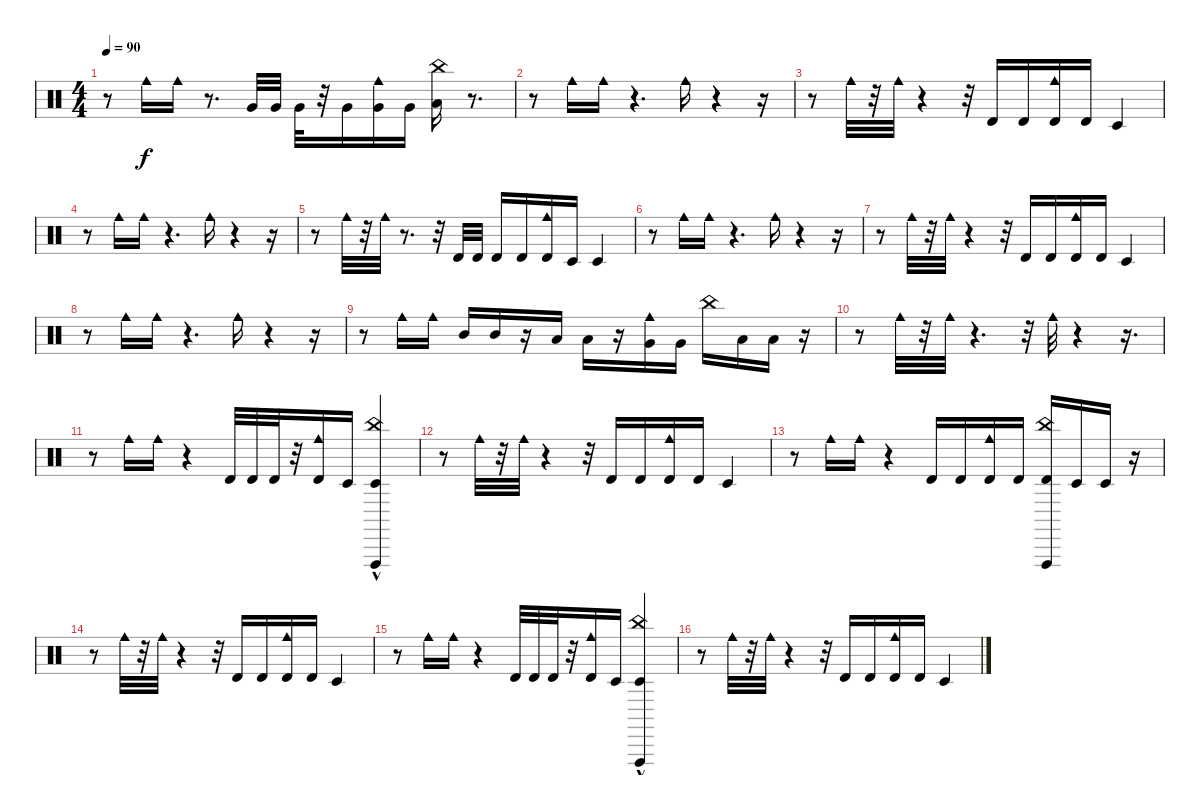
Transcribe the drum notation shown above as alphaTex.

\track "" {instrument percussion}
\staff {score}
\articulation defaults
\ts (4 4)
\tempo 90
\clef neutral
\ks c
r.8{dy f} "Cowbell medium (hit)".16 "Cowbell medium (hit)".16 r.8{d} "Very Low Tom (hit)".32 "Very Low Tom (hit)".32 "Very Low Tom (hit)".32 r.32 "Very Low Tom (hit)".16 ("Very Low Tom (hit)" "Cowbell medium (hit)").16 "Very Low Tom (hit)".16 ("Low Floor Tom (hit)" "China (hit)").16 r.8{d} |
r.8 "Cowbell medium (hit)".16 "Cowbell medium (hit)".16 r.4{d} "Cowbell medium (hit)".16 r.4 r.16 |
r.8 "Cowbell medium (hit)".32 r.32 "Cowbell medium (hit)".32 r.4 r.32 "Timbale high (hit)".16 "Timbale high (hit)".16 ("Cowbell medium (hit)" "Timbale high (hit)").16 "Timbale high (hit)".16 "Timbale low (hit)".4 |
r.8 "Cowbell medium (hit)".16 "Cowbell medium (hit)".16 r.4{d} "Cowbell medium (hit)".16 r.4 r.16 |
r.8 "Cowbell medium (hit)".32 r.32 "Cowbell medium (hit)".32 r.8{d} r.32 "Timbale high (hit)".32 "Timbale high (hit)".32 "Timbale high (hit)".16 "Timbale high (hit)".16 ("Cowbell medium (hit)" "Timbale high (hit)").16 "Timbale low (hit)".16 "Timbale low (hit)".4 |
r.8 "Cowbell medium (hit)".16 "Cowbell medium (hit)".16 r.4{d} "Cowbell medium (hit)".16 r.4 r.16 |
r.8 "Cowbell medium (hit)".32 r.32 "Cowbell medium (hit)".32 r.4 r.32 "Timbale high (hit)".16 "Timbale high (hit)".16 ("Cowbell medium (hit)" "Timbale high (hit)").16 "Timbale high (hit)".16 "Timbale low (hit)".4 |
r.8 "Cowbell medium (hit)".16 "Cowbell medium (hit)".16 r.4{d} "Cowbell medium (hit)".16 r.4 r.16 |
r.8 "Cowbell medium (hit)".16 "Cowbell medium (hit)".16 "Mid Tom (hit)".16 "Mid Tom (hit)".16 r.16 "Low Tom (hit)".16 "Low Tom (hit)".16 r.16 ("Very Low Tom (hit)" "Cowbell medium (hit)").16 "Very Low Tom (hit)".16 "China (hit)".16 "Low Floor Tom (hit)".16 "Low Floor Tom (hit)".16 r.16 |
r.8 "Cowbell medium (hit)".32 r.32 "Cowbell medium (hit)".32 r.4{d} r.32 "Cowbell medium (hit)".32 r.4 r.16{d} |
r.8 "Cowbell medium (hit)".16 "Cowbell medium (hit)".16 r.4 "Timbale high (hit)".32 "Timbale high (hit)".32 "Timbale high (hit)".32 r.32 ("Cowbell medium (hit)" "Timbale high (hit)").16 "Timbale low (hit)".16 ("Vibraslap (hit)"{hac} "China (hit)" "Timbale low (hit)").4 |
r.8 "Cowbell medium (hit)".32 r.32 "Cowbell medium (hit)".32 r.4 r.32 "Timbale high (hit)".16 "Timbale high (hit)".16 ("Timbale high (hit)" "Cowbell medium (hit)").16 "Timbale high (hit)".16 "Timbale low (hit)".4 |
r.8 "Cowbell medium (hit)".16 "Cowbell medium (hit)".16 r.4 "Timbale high (hit)".16 "Timbale high (hit)".16 ("Timbale high (hit)" "Cowbell medium (hit)").16 "Timbale high (hit)".16 ("China (hit)" "Vibraslap (hit)" "Timbale high (hit)").16 "Timbale low (hit)".16 "Timbale low (hit)".16 r.16 |
r.8 "Cowbell medium (hit)".32 r.32 "Cowbell medium (hit)".32 r.4 r.32 "Timbale high (hit)".16 "Timbale high (hit)".16 ("Timbale high (hit)" "Cowbell medium (hit)").16 "Timbale high (hit)".16 "Timbale low (hit)".4 |
r.8 "Cowbell medium (hit)".16 "Cowbell medium (hit)".16 r.4 "Timbale high (hit)".32 "Timbale high (hit)".32 "Timbale high (hit)".32 r.32 ("Timbale high (hit)" "Cowbell medium (hit)").16 "Timbale low (hit)".16 ("Vibraslap (hit)"{hac} "China (hit)" "Timbale low (hit)").4 |
r.8 "Cowbell medium (hit)".32 r.32 "Cowbell medium (hit)".32 r.4 r.32 "Timbale high (hit)".16 "Timbale high (hit)".16 ("Timbale high (hit)" "Cowbell medium (hit)").16 "Timbale high (hit)".16 "Timbale low (hit)".4
